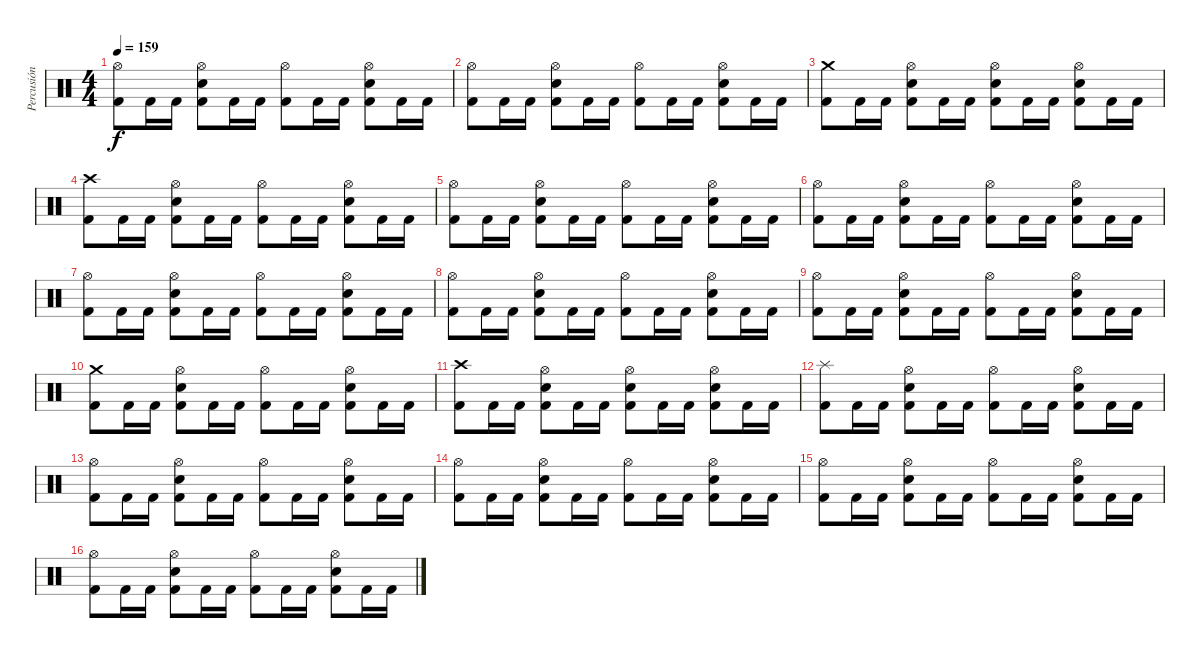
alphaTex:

\track ("Percusión" "Percusión") {instrument percussion}
\staff {score}
\articulation defaults
\ts (4 4)
\tempo 159
\clef neutral
\ks c
("Hi-Hat (open)" "Kick (hit) 2").8{dy f} "Kick (hit) 2".16 "Kick (hit) 2".16 ("Hi-Hat (open)" "Electric Snare (hit)" "Kick (hit) 2").8 "Kick (hit) 2".16 "Kick (hit) 2".16 ("Hi-Hat (open)" "Kick (hit) 2").8 "Kick (hit) 2".16 "Kick (hit) 2".16 ("Hi-Hat (open)" "Electric Snare (hit)" "Kick (hit) 2").8 "Kick (hit) 2".16 "Kick (hit) 2".16 |
("Hi-Hat (open)" "Kick (hit) 2").8 "Kick (hit) 2".16 "Kick (hit) 2".16 ("Hi-Hat (open)" "Electric Snare (hit)" "Kick (hit) 2").8 "Kick (hit) 2".16 "Kick (hit) 2".16 ("Hi-Hat (open)" "Kick (hit) 2").8 "Kick (hit) 2".16 "Kick (hit) 2".16 ("Hi-Hat (open)" "Electric Snare (hit)" "Kick (hit) 2").8 "Kick (hit) 2".16 "Kick (hit) 2".16 |
("Crash medium (hit)" "Kick (hit) 2").8 "Kick (hit) 2".16 "Kick (hit) 2".16 ("Hi-Hat (open)" "Electric Snare (hit)" "Kick (hit) 2").8 "Kick (hit) 2".16 "Kick (hit) 2".16 ("Hi-Hat (open)" "Electric Snare (hit)" "Kick (hit) 2").8 "Kick (hit) 2".16 "Kick (hit) 2".16 ("Hi-Hat (open)" "Electric Snare (hit)" "Kick (hit) 2").8 "Kick (hit) 2".16 "Kick (hit) 2".16 |
("Crash high (hit)" "Kick (hit) 2").8 "Kick (hit) 2".16 "Kick (hit) 2".16 ("Hi-Hat (open)" "Electric Snare (hit)" "Kick (hit) 2").8 "Kick (hit) 2".16 "Kick (hit) 2".16 ("Hi-Hat (open)" "Kick (hit) 2").8 "Kick (hit) 2".16 "Kick (hit) 2".16 ("Hi-Hat (open)" "Electric Snare (hit)" "Kick (hit) 2").8 "Kick (hit) 2".16 "Kick (hit) 2".16 |
("Hi-Hat (open)" "Kick (hit) 2").8 "Kick (hit) 2".16 "Kick (hit) 2".16 ("Hi-Hat (open)" "Electric Snare (hit)" "Kick (hit) 2").8 "Kick (hit) 2".16 "Kick (hit) 2".16 ("Hi-Hat (open)" "Kick (hit) 2").8 "Kick (hit) 2".16 "Kick (hit) 2".16 ("Hi-Hat (open)" "Electric Snare (hit)" "Kick (hit) 2").8 "Kick (hit) 2".16 "Kick (hit) 2".16 |
("Hi-Hat (open)" "Kick (hit) 2").8 "Kick (hit) 2".16 "Kick (hit) 2".16 ("Hi-Hat (open)" "Electric Snare (hit)" "Kick (hit) 2").8 "Kick (hit) 2".16 "Kick (hit) 2".16 ("Hi-Hat (open)" "Kick (hit) 2").8 "Kick (hit) 2".16 "Kick (hit) 2".16 ("Hi-Hat (open)" "Electric Snare (hit)" "Kick (hit) 2").8 "Kick (hit) 2".16 "Kick (hit) 2".16 |
("Hi-Hat (open)" "Kick (hit) 2").8 "Kick (hit) 2".16 "Kick (hit) 2".16 ("Hi-Hat (open)" "Electric Snare (hit)" "Kick (hit) 2").8 "Kick (hit) 2".16 "Kick (hit) 2".16 ("Hi-Hat (open)" "Kick (hit) 2").8 "Kick (hit) 2".16 "Kick (hit) 2".16 ("Hi-Hat (open)" "Electric Snare (hit)" "Kick (hit) 2").8 "Kick (hit) 2".16 "Kick (hit) 2".16 |
("Hi-Hat (open)" "Kick (hit) 2").8 "Kick (hit) 2".16 "Kick (hit) 2".16 ("Hi-Hat (open)" "Electric Snare (hit)" "Kick (hit) 2").8 "Kick (hit) 2".16 "Kick (hit) 2".16 ("Hi-Hat (open)" "Kick (hit) 2").8 "Kick (hit) 2".16 "Kick (hit) 2".16 ("Hi-Hat (open)" "Electric Snare (hit)" "Kick (hit) 2").8 "Kick (hit) 2".16 "Kick (hit) 2".16 |
("Hi-Hat (open)" "Kick (hit) 2").8 "Kick (hit) 2".16 "Kick (hit) 2".16 ("Hi-Hat (open)" "Electric Snare (hit)" "Kick (hit) 2").8 "Kick (hit) 2".16 "Kick (hit) 2".16 ("Hi-Hat (open)" "Kick (hit) 2").8 "Kick (hit) 2".16 "Kick (hit) 2".16 ("Hi-Hat (open)" "Electric Snare (hit)" "Kick (hit) 2").8 "Kick (hit) 2".16 "Kick (hit) 2".16 |
("Crash medium (hit)" "Kick (hit) 2").8 "Kick (hit) 2".16 "Kick (hit) 2".16 ("Hi-Hat (open)" "Electric Snare (hit)" "Kick (hit) 2").8 "Kick (hit) 2".16 "Kick (hit) 2".16 ("Hi-Hat (open)" "Kick (hit) 2").8 "Kick (hit) 2".16 "Kick (hit) 2".16 ("Hi-Hat (open)" "Electric Snare (hit)" "Kick (hit) 2").8 "Kick (hit) 2".16 "Kick (hit) 2".16 |
("Crash high (hit)" "Kick (hit) 2").8 "Kick (hit) 2".16 "Kick (hit) 2".16 ("Hi-Hat (open)" "Electric Snare (hit)" "Kick (hit) 2").8 "Kick (hit) 2".16 "Kick (hit) 2".16 ("Hi-Hat (open)" "Electric Snare (hit)" "Kick (hit) 2").8 "Kick (hit) 2".16 "Kick (hit) 2".16 ("Hi-Hat (open)" "Electric Snare (hit)" "Kick (hit) 2").8 "Kick (hit) 2".16 "Kick (hit) 2".16 |
("Splash (hit)" "Kick (hit) 2").8 "Kick (hit) 2".16 "Kick (hit) 2".16 ("Hi-Hat (open)" "Electric Snare (hit)" "Kick (hit) 2").8 "Kick (hit) 2".16 "Kick (hit) 2".16 ("Hi-Hat (open)" "Kick (hit) 2").8 "Kick (hit) 2".16 "Kick (hit) 2".16 ("Hi-Hat (open)" "Electric Snare (hit)" "Kick (hit) 2").8 "Kick (hit) 2".16 "Kick (hit) 2".16 |
("Hi-Hat (open)" "Kick (hit) 2").8 "Kick (hit) 2".16 "Kick (hit) 2".16 ("Hi-Hat (open)" "Electric Snare (hit)" "Kick (hit) 2").8 "Kick (hit) 2".16 "Kick (hit) 2".16 ("Hi-Hat (open)" "Kick (hit) 2").8 "Kick (hit) 2".16 "Kick (hit) 2".16 ("Hi-Hat (open)" "Electric Snare (hit)" "Kick (hit) 2").8 "Kick (hit) 2".16 "Kick (hit) 2".16 |
("Hi-Hat (open)" "Kick (hit) 2").8 "Kick (hit) 2".16 "Kick (hit) 2".16 ("Hi-Hat (open)" "Electric Snare (hit)" "Kick (hit) 2").8 "Kick (hit) 2".16 "Kick (hit) 2".16 ("Hi-Hat (open)" "Kick (hit) 2").8 "Kick (hit) 2".16 "Kick (hit) 2".16 ("Hi-Hat (open)" "Electric Snare (hit)" "Kick (hit) 2").8 "Kick (hit) 2".16 "Kick (hit) 2".16 |
("Hi-Hat (open)" "Kick (hit) 2").8 "Kick (hit) 2".16 "Kick (hit) 2".16 ("Hi-Hat (open)" "Electric Snare (hit)" "Kick (hit) 2").8 "Kick (hit) 2".16 "Kick (hit) 2".16 ("Hi-Hat (open)" "Kick (hit) 2").8 "Kick (hit) 2".16 "Kick (hit) 2".16 ("Hi-Hat (open)" "Electric Snare (hit)" "Kick (hit) 2").8 "Kick (hit) 2".16 "Kick (hit) 2".16 |
("Hi-Hat (open)" "Kick (hit) 2").8 "Kick (hit) 2".16 "Kick (hit) 2".16 ("Hi-Hat (open)" "Electric Snare (hit)" "Kick (hit) 2").8 "Kick (hit) 2".16 "Kick (hit) 2".16 ("Hi-Hat (open)" "Kick (hit) 2").8 "Kick (hit) 2".16 "Kick (hit) 2".16 ("Hi-Hat (open)" "Electric Snare (hit)" "Kick (hit) 2").8 "Kick (hit) 2".16 "Kick (hit) 2".16
